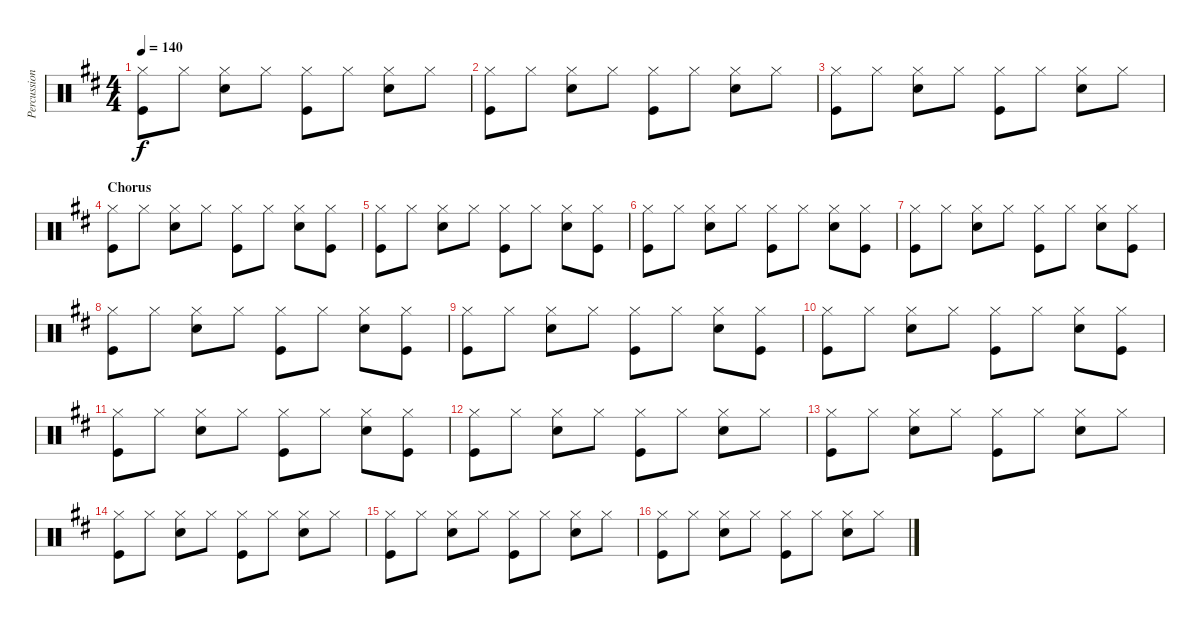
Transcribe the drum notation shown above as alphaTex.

\track ("Percussion" "Percussion") {instrument percussion}
\staff {score}
\articulation defaults
\ts (4 4)
\tempo 140
\clef neutral
\ks d
("Hi-Hat (closed)" "Kick (hit)").8{dy f} "Hi-Hat (closed)".8 ("Hi-Hat (closed)" "Snare (hit) 2").8 "Hi-Hat (closed)".8 ("Hi-Hat (closed)" "Kick (hit)").8 "Hi-Hat (closed)".8 ("Hi-Hat (closed)" "Snare (hit) 2").8 "Hi-Hat (closed)".8 |
("Hi-Hat (closed)" "Kick (hit)").8 "Hi-Hat (closed)".8 ("Hi-Hat (closed)" "Snare (hit) 2").8 "Hi-Hat (closed)".8 ("Hi-Hat (closed)" "Kick (hit)").8 "Hi-Hat (closed)".8 ("Hi-Hat (closed)" "Snare (hit) 2").8 "Hi-Hat (closed)".8 |
("Hi-Hat (closed)" "Kick (hit)").8 "Hi-Hat (closed)".8 ("Hi-Hat (closed)" "Snare (hit) 2").8 "Hi-Hat (closed)".8 ("Hi-Hat (closed)" "Kick (hit)").8 "Hi-Hat (closed)".8 ("Hi-Hat (closed)" "Snare (hit) 2").8 "Hi-Hat (closed)".8 |
\section ("" "Chorus")
("Hi-Hat (closed)" "Kick (hit)").8 "Hi-Hat (closed)".8 ("Hi-Hat (closed)" "Snare (hit) 2").8 "Hi-Hat (closed)".8 ("Hi-Hat (closed)" "Kick (hit)").8 "Hi-Hat (closed)".8 ("Hi-Hat (closed)" "Snare (hit) 2").8 ("Hi-Hat (closed)" "Kick (hit)").8 |
("Hi-Hat (closed)" "Kick (hit)").8 "Hi-Hat (closed)".8 ("Hi-Hat (closed)" "Snare (hit) 2").8 "Hi-Hat (closed)".8 ("Hi-Hat (closed)" "Kick (hit)").8 "Hi-Hat (closed)".8 ("Hi-Hat (closed)" "Snare (hit) 2").8 ("Hi-Hat (closed)" "Kick (hit)").8 |
("Hi-Hat (closed)" "Kick (hit)").8 "Hi-Hat (closed)".8 ("Hi-Hat (closed)" "Snare (hit) 2").8 "Hi-Hat (closed)".8 ("Hi-Hat (closed)" "Kick (hit)").8 "Hi-Hat (closed)".8 ("Hi-Hat (closed)" "Snare (hit) 2").8 ("Hi-Hat (closed)" "Kick (hit)").8 |
("Hi-Hat (closed)" "Kick (hit)").8 "Hi-Hat (closed)".8 ("Hi-Hat (closed)" "Snare (hit) 2").8 "Hi-Hat (closed)".8 ("Hi-Hat (closed)" "Kick (hit)").8 "Hi-Hat (closed)".8 ("Hi-Hat (closed)" "Snare (hit) 2").8 ("Hi-Hat (closed)" "Kick (hit)").8 |
("Hi-Hat (closed)" "Kick (hit)").8 "Hi-Hat (closed)".8 ("Hi-Hat (closed)" "Snare (hit) 2").8 "Hi-Hat (closed)".8 ("Hi-Hat (closed)" "Kick (hit)").8 "Hi-Hat (closed)".8 ("Hi-Hat (closed)" "Snare (hit) 2").8 ("Hi-Hat (closed)" "Kick (hit)").8 |
("Hi-Hat (closed)" "Kick (hit)").8 "Hi-Hat (closed)".8 ("Hi-Hat (closed)" "Snare (hit) 2").8 "Hi-Hat (closed)".8 ("Hi-Hat (closed)" "Kick (hit)").8 "Hi-Hat (closed)".8 ("Hi-Hat (closed)" "Snare (hit) 2").8 ("Hi-Hat (closed)" "Kick (hit)").8 |
("Hi-Hat (closed)" "Kick (hit)").8 "Hi-Hat (closed)".8 ("Hi-Hat (closed)" "Snare (hit) 2").8 "Hi-Hat (closed)".8 ("Hi-Hat (closed)" "Kick (hit)").8 "Hi-Hat (closed)".8 ("Hi-Hat (closed)" "Snare (hit) 2").8 ("Hi-Hat (closed)" "Kick (hit)").8 |
("Hi-Hat (closed)" "Kick (hit)").8 "Hi-Hat (closed)".8 ("Hi-Hat (closed)" "Snare (hit) 2").8 "Hi-Hat (closed)".8 ("Hi-Hat (closed)" "Kick (hit)").8 "Hi-Hat (closed)".8 ("Hi-Hat (closed)" "Snare (hit) 2").8 ("Hi-Hat (closed)" "Kick (hit)").8 |
("Hi-Hat (closed)" "Kick (hit)").8 "Hi-Hat (closed)".8 ("Hi-Hat (closed)" "Snare (hit) 2").8 "Hi-Hat (closed)".8 ("Hi-Hat (closed)" "Kick (hit)").8 "Hi-Hat (closed)".8 ("Hi-Hat (closed)" "Snare (hit) 2").8 "Hi-Hat (closed)".8 |
("Hi-Hat (closed)" "Kick (hit)").8 "Hi-Hat (closed)".8 ("Hi-Hat (closed)" "Snare (hit) 2").8 "Hi-Hat (closed)".8 ("Hi-Hat (closed)" "Kick (hit)").8 "Hi-Hat (closed)".8 ("Hi-Hat (closed)" "Snare (hit) 2").8 "Hi-Hat (closed)".8 |
("Hi-Hat (closed)" "Kick (hit)").8 "Hi-Hat (closed)".8 ("Hi-Hat (closed)" "Snare (hit) 2").8 "Hi-Hat (closed)".8 ("Hi-Hat (closed)" "Kick (hit)").8 "Hi-Hat (closed)".8 ("Hi-Hat (closed)" "Snare (hit) 2").8 "Hi-Hat (closed)".8 |
("Hi-Hat (closed)" "Kick (hit)").8 "Hi-Hat (closed)".8 ("Hi-Hat (closed)" "Snare (hit) 2").8 "Hi-Hat (closed)".8 ("Hi-Hat (closed)" "Kick (hit)").8 "Hi-Hat (closed)".8 ("Hi-Hat (closed)" "Snare (hit) 2").8 "Hi-Hat (closed)".8 |
("Hi-Hat (closed)" "Kick (hit)").8 "Hi-Hat (closed)".8 ("Hi-Hat (closed)" "Snare (hit) 2").8 "Hi-Hat (closed)".8 ("Hi-Hat (closed)" "Kick (hit)").8 "Hi-Hat (closed)".8 ("Hi-Hat (closed)" "Snare (hit) 2").8 "Hi-Hat (closed)".8
